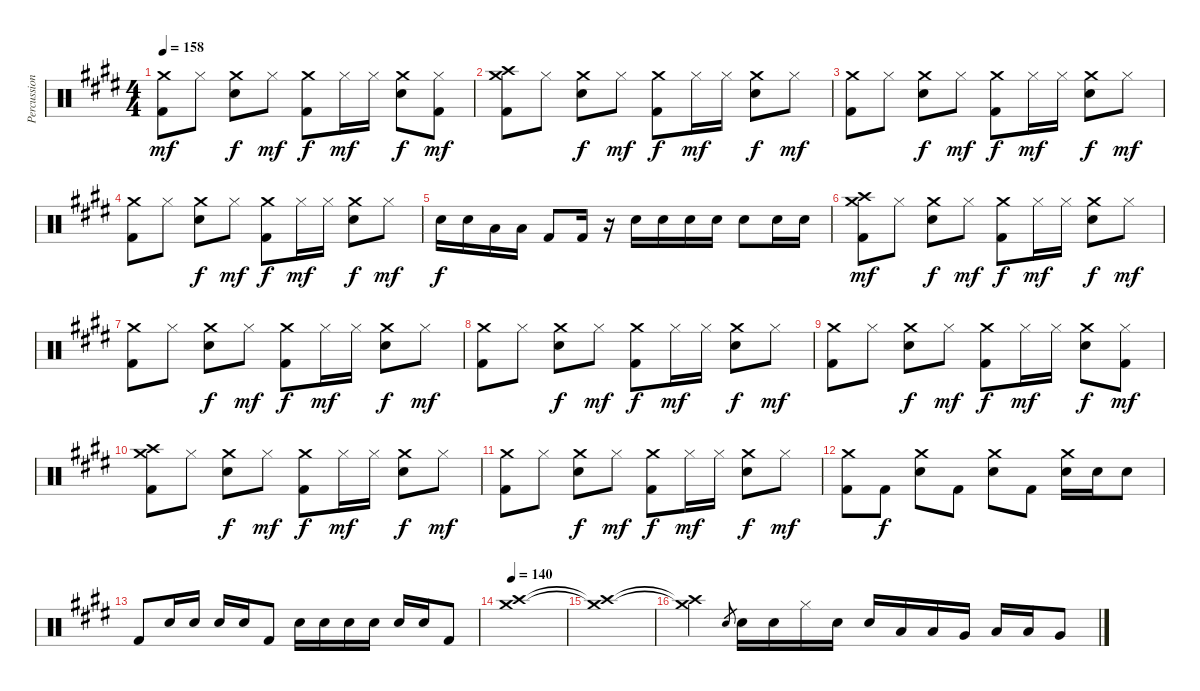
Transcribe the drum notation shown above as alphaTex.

\track ("Percussion" "Percussion") {instrument percussion}
\staff {score}
\articulation defaults
\ts (4 4)
\tempo 158
\clef neutral
\ks e
("Crash medium (hit)" "Kick (hit) 2").8{dy mf} "Hi-Hat (closed)".8 ("Crash medium (hit)" "Snare (hit) 2").8{dy f} "Hi-Hat (closed)".8{dy mf} ("Crash medium (hit)" "Kick (hit) 2").8{dy f} "Hi-Hat (closed)".16{dy mf} "Hi-Hat (closed)".16 ("Crash medium (hit)" "Snare (hit) 2").8{dy f} ("Hi-Hat (closed)" "Kick (hit) 2").8{dy mf} |
("Crash high (hit)" "Crash medium (hit)" "Kick (hit) 2").8 "Hi-Hat (closed)".8 ("Crash medium (hit)" "Snare (hit) 2").8{dy f} "Hi-Hat (closed)".8{dy mf} ("Crash medium (hit)" "Kick (hit) 2").8{dy f} "Hi-Hat (closed)".16{dy mf} "Hi-Hat (closed)".16 ("Crash medium (hit)" "Snare (hit) 2").8{dy f} "Hi-Hat (closed)".8{dy mf} |
("Crash medium (hit)" "Kick (hit) 2").8 "Hi-Hat (closed)".8 ("Crash medium (hit)" "Snare (hit) 2").8{dy f} "Hi-Hat (closed)".8{dy mf} ("Crash medium (hit)" "Kick (hit) 2").8{dy f} "Hi-Hat (closed)".16{dy mf} "Hi-Hat (closed)".16 ("Crash medium (hit)" "Snare (hit) 2").8{dy f} "Hi-Hat (closed)".8{dy mf} |
("Crash medium (hit)" "Kick (hit) 2").8 "Hi-Hat (closed)".8 ("Crash medium (hit)" "Snare (hit) 2").8{dy f} "Hi-Hat (closed)".8{dy mf} ("Crash medium (hit)" "Kick (hit) 2").8{dy f} "Hi-Hat (closed)".16{dy mf} "Hi-Hat (closed)".16 ("Crash medium (hit)" "Snare (hit) 2").8{dy f} "Hi-Hat (closed)".8{dy mf} |
"Snare (hit) 2".16{dy f} "Snare (hit) 2".16 "Low Tom (hit)".16 "Low Tom (hit)".16 "Kick (hit) 2".8 "Kick (hit) 2".16 r.16 "Snare (hit) 2".16 "Snare (hit) 2".16 "Snare (hit) 2".16 "Snare (hit) 2".16 "Snare (hit) 2".8 "Snare (hit) 2".16 "Snare (hit) 2".16 |
("Crash high (hit)" "Crash medium (hit)" "Kick (hit) 2").8{dy mf} "Hi-Hat (closed)".8 ("Crash medium (hit)" "Snare (hit) 2").8{dy f} "Hi-Hat (closed)".8{dy mf} ("Crash medium (hit)" "Kick (hit) 2").8{dy f} "Hi-Hat (closed)".16{dy mf} "Hi-Hat (closed)".16 ("Crash medium (hit)" "Snare (hit) 2").8{dy f} "Hi-Hat (closed)".8{dy mf} |
("Crash medium (hit)" "Kick (hit) 2").8 "Hi-Hat (closed)".8 ("Crash medium (hit)" "Snare (hit) 2").8{dy f} "Hi-Hat (closed)".8{dy mf} ("Crash medium (hit)" "Kick (hit) 2").8{dy f} "Hi-Hat (closed)".16{dy mf} "Hi-Hat (closed)".16 ("Crash medium (hit)" "Snare (hit) 2").8{dy f} "Hi-Hat (closed)".8{dy mf} |
("Crash medium (hit)" "Kick (hit) 2").8 "Hi-Hat (closed)".8 ("Crash medium (hit)" "Snare (hit) 2").8{dy f} "Hi-Hat (closed)".8{dy mf} ("Crash medium (hit)" "Kick (hit) 2").8{dy f} "Hi-Hat (closed)".16{dy mf} "Hi-Hat (closed)".16 ("Crash medium (hit)" "Snare (hit) 2").8{dy f} "Hi-Hat (closed)".8{dy mf} |
("Crash medium (hit)" "Kick (hit) 2").8 "Hi-Hat (closed)".8 ("Crash medium (hit)" "Snare (hit) 2").8{dy f} "Hi-Hat (closed)".8{dy mf} ("Crash medium (hit)" "Kick (hit) 2").8{dy f} "Hi-Hat (closed)".16{dy mf} "Hi-Hat (closed)".16 ("Crash medium (hit)" "Snare (hit) 2").8{dy f} ("Hi-Hat (closed)" "Kick (hit) 2").8{dy mf} |
("Crash high (hit)" "Crash medium (hit)" "Kick (hit) 2").8 "Hi-Hat (closed)".8 ("Crash medium (hit)" "Snare (hit) 2").8{dy f} "Hi-Hat (closed)".8{dy mf} ("Crash medium (hit)" "Kick (hit) 2").8{dy f} "Hi-Hat (closed)".16{dy mf} "Hi-Hat (closed)".16 ("Crash medium (hit)" "Snare (hit) 2").8{dy f} "Hi-Hat (closed)".8{dy mf} |
("Crash medium (hit)" "Kick (hit) 2").8 "Hi-Hat (closed)".8 ("Crash medium (hit)" "Snare (hit) 2").8{dy f} "Hi-Hat (closed)".8{dy mf} ("Crash medium (hit)" "Kick (hit) 2").8{dy f} "Hi-Hat (closed)".16{dy mf} "Hi-Hat (closed)".16 ("Crash medium (hit)" "Snare (hit) 2").8{dy f} "Hi-Hat (closed)".8{dy mf} |
("Crash medium (hit)" "Kick (hit) 2").8 "Kick (hit) 2".8{dy f} ("Crash medium (hit)" "Snare (hit) 2").8 "Kick (hit) 2".8 ("Crash medium (hit)" "Snare (hit) 2").8 "Kick (hit) 2".8 ("Crash medium (hit)" "Snare (hit) 2").16 "Snare (hit) 2".16 "Snare (hit) 2".8 |
"Kick (hit) 2".8 "Snare (hit) 2".16 "Snare (hit) 2".16 "Snare (hit) 2".16 "Snare (hit) 2".16 "Kick (hit) 2".8 "Snare (hit) 2".16 "Snare (hit) 2".16 "Snare (hit) 2".16 "Snare (hit) 2".16 "Snare (hit) 2".16 "Snare (hit) 2".16 "Kick (hit) 2".8 |
\tempo 140
("Crash medium (hit)" "Crash high (hit)").1 |
("Crash medium (hit)"{t} "Crash high (hit)"{t}).1 |
("Crash medium (hit)"{t} "Crash high (hit)"{t}).4 "Snare (hit) 2".8{gr} "Snare (hit) 2".16 "Snare (hit) 2".16 "Hi-Hat (closed)".16 "Snare (hit) 2".16 "Snare (hit) 2".16 "Low Tom (hit)".16 "Low Tom (hit)".16 "Very Low Tom (hit)".16 "Low Tom (hit)".16 "Low Tom (hit)".16 "Very Low Tom (hit)".8
